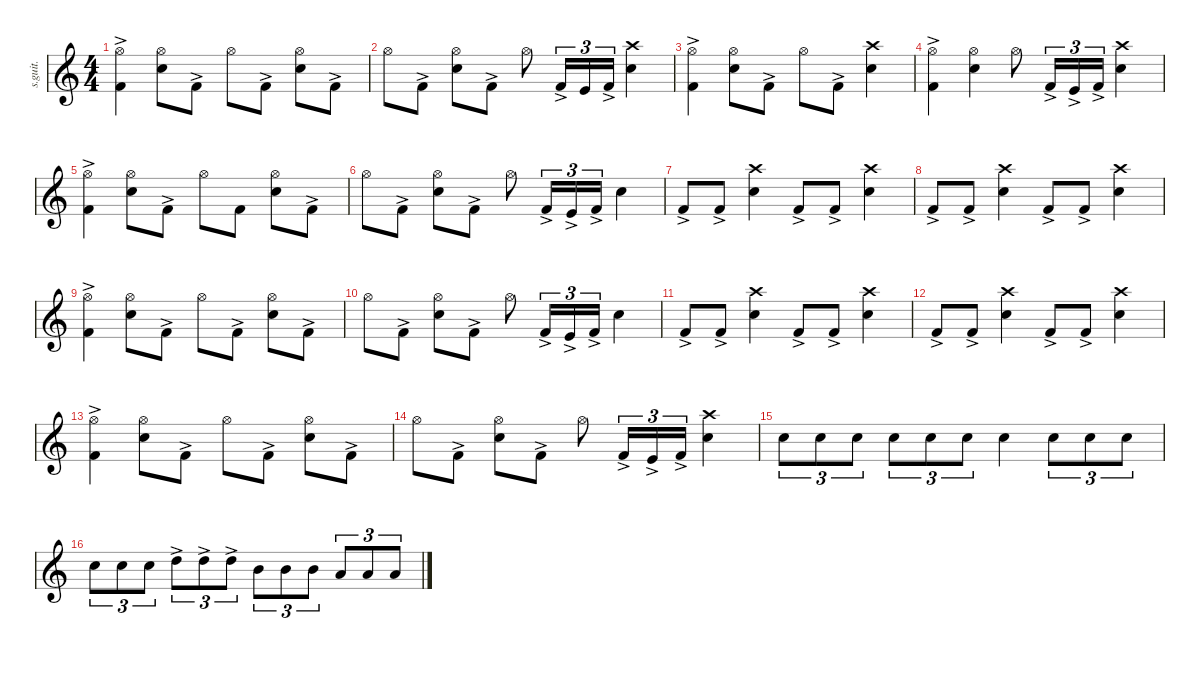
\defaultSystemsLayout 4
\hideDynamics
\bracketExtendMode nobrackets
\track ("Lars Ulrich - Drums" "s.guit.") {instrument percussion}
\staff {score}
\articulation defaults
\ts (4 4)
\tempo (220 hide)
\clef g2
\ks c
("Hi-Hat (open)" "Kick (hit) 2"{ac}).4{lyrics (0 "") lyrics (1 "") lyrics (2 "") lyrics (3 "") lyrics (4 "") dy f} ("Hi-Hat (open)" "Snare (hit) 2").8{lyrics (0 "") lyrics (1 "") lyrics (2 "") lyrics (3 "") lyrics (4 "")} "Kick (hit) 2"{ac}.8{lyrics (0 "") lyrics (1 "") lyrics (2 "") lyrics (3 "") lyrics (4 "") dy mp} "Hi-Hat (open)".8{lyrics (0 "") lyrics (1 "") lyrics (2 "") lyrics (3 "") lyrics (4 "") dy f} "Kick (hit) 2"{ac}.8{lyrics (0 "") lyrics (1 "") lyrics (2 "") lyrics (3 "") lyrics (4 "") dy mp} ("Hi-Hat (open)" "Snare (hit) 2").8{lyrics (0 "") lyrics (1 "") lyrics (2 "") lyrics (3 "") lyrics (4 "") dy f} "Kick (hit) 2"{ac}.8{lyrics (0 "") lyrics (1 "") lyrics (2 "") lyrics (3 "") lyrics (4 "") dy mp} |
"Hi-Hat (open)".8{lyrics (0 "") lyrics (1 "") lyrics (2 "") lyrics (3 "") lyrics (4 "") dy f} "Kick (hit) 2"{ac}.8{lyrics (0 "") lyrics (1 "") lyrics (2 "") lyrics (3 "") lyrics (4 "") dy mp} ("Hi-Hat (open)" "Snare (hit) 2").8{lyrics (0 "") lyrics (1 "") lyrics (2 "") lyrics (3 "") lyrics (4 "") dy f} "Kick (hit) 2"{ac}.8{lyrics (0 "") lyrics (1 "") lyrics (2 "") lyrics (3 "") lyrics (4 "") dy mp} "Hi-Hat (open)".8{lyrics (0 "") lyrics (1 "") lyrics (2 "") lyrics (3 "") lyrics (4 "") dy f} "Kick (hit) 2"{ac}.16{tu (3 2) lyrics (0 "") lyrics (1 "") lyrics (2 "") lyrics (3 "") lyrics (4 "") dy mp} "Kick (hit)".16{tu (3 2) lyrics (0 "") lyrics (1 "") lyrics (2 "") lyrics (3 "") lyrics (4 "") dy mf} "Kick (hit) 2"{ac}.16{tu (3 2) lyrics (0 "") lyrics (1 "") lyrics (2 "") lyrics (3 "") lyrics (4 "") dy mp} ("Snare (hit) 2" "Crash high (hit)").4{lyrics (0 "") lyrics (1 "") lyrics (2 "") lyrics (3 "") lyrics (4 "") dy f} |
("Hi-Hat (open)" "Kick (hit) 2"{ac}).4{lyrics (0 "") lyrics (1 "") lyrics (2 "") lyrics (3 "") lyrics (4 "")} ("Hi-Hat (open)" "Snare (hit) 2").8{lyrics (0 "") lyrics (1 "") lyrics (2 "") lyrics (3 "") lyrics (4 "")} "Kick (hit) 2"{ac}.8{lyrics (0 "") lyrics (1 "") lyrics (2 "") lyrics (3 "") lyrics (4 "") dy mp} "Hi-Hat (open)".8{lyrics (0 "") lyrics (1 "") lyrics (2 "") lyrics (3 "") lyrics (4 "") dy f} "Kick (hit) 2"{ac}.8{lyrics (0 "") lyrics (1 "") lyrics (2 "") lyrics (3 "") lyrics (4 "") dy mp} ("Crash high (hit)" "Snare (hit) 2").4{lyrics (0 "") lyrics (1 "") lyrics (2 "") lyrics (3 "") lyrics (4 "") dy f} |
("Hi-Hat (open)" "Kick (hit) 2"{ac}).4{lyrics (0 "") lyrics (1 "") lyrics (2 "") lyrics (3 "") lyrics (4 "")} ("Hi-Hat (open)" "Snare (hit) 2").4{lyrics (0 "") lyrics (1 "") lyrics (2 "") lyrics (3 "") lyrics (4 "")} "Hi-Hat (open)".8{lyrics (0 "") lyrics (1 "") lyrics (2 "") lyrics (3 "") lyrics (4 "")} "Kick (hit) 2"{ac}.16{tu (3 2) lyrics (0 "") lyrics (1 "") lyrics (2 "") lyrics (3 "") lyrics (4 "") dy mp} "Kick (hit)"{ac}.16{tu (3 2) lyrics (0 "") lyrics (1 "") lyrics (2 "") lyrics (3 "") lyrics (4 "") dy mf} "Kick (hit) 2"{ac}.16{tu (3 2) lyrics (0 "") lyrics (1 "") lyrics (2 "") lyrics (3 "") lyrics (4 "") dy mp} ("Crash high (hit)" "Snare (hit) 2").4{lyrics (0 "") lyrics (1 "") lyrics (2 "") lyrics (3 "") lyrics (4 "") dy f} |
("Hi-Hat (open)" "Kick (hit) 2"{ac}).4{lyrics (0 "") lyrics (1 "") lyrics (2 "") lyrics (3 "") lyrics (4 "")} ("Hi-Hat (open)" "Snare (hit) 2").8{lyrics (0 "") lyrics (1 "") lyrics (2 "") lyrics (3 "") lyrics (4 "")} "Kick (hit) 2"{ac}.8{lyrics (0 "") lyrics (1 "") lyrics (2 "") lyrics (3 "") lyrics (4 "") dy mp} "Hi-Hat (open)".8{lyrics (0 "") lyrics (1 "") lyrics (2 "") lyrics (3 "") lyrics (4 "") dy f} "Kick (hit) 2".8{lyrics (0 "") lyrics (1 "") lyrics (2 "") lyrics (3 "") lyrics (4 "")} ("Hi-Hat (open)" "Snare (hit) 2").8{lyrics (0 "") lyrics (1 "") lyrics (2 "") lyrics (3 "") lyrics (4 "")} "Kick (hit) 2"{ac}.8{lyrics (0 "") lyrics (1 "") lyrics (2 "") lyrics (3 "") lyrics (4 "") dy mp} |
"Hi-Hat (open)".8{lyrics (0 "") lyrics (1 "") lyrics (2 "") lyrics (3 "") lyrics (4 "") dy f} "Kick (hit) 2"{ac}.8{lyrics (0 "") lyrics (1 "") lyrics (2 "") lyrics (3 "") lyrics (4 "") dy mp} ("Hi-Hat (open)" "Snare (hit) 2").8{lyrics (0 "") lyrics (1 "") lyrics (2 "") lyrics (3 "") lyrics (4 "") dy f} "Kick (hit) 2"{ac}.8{lyrics (0 "") lyrics (1 "") lyrics (2 "") lyrics (3 "") lyrics (4 "") dy mp} "Hi-Hat (open)".8{lyrics (0 "") lyrics (1 "") lyrics (2 "") lyrics (3 "") lyrics (4 "") dy f} "Kick (hit) 2"{ac}.16{tu (3 2) lyrics (0 "") lyrics (1 "") lyrics (2 "") lyrics (3 "") lyrics (4 "") dy mp} "Kick (hit)"{ac}.16{tu (3 2) lyrics (0 "") lyrics (1 "") lyrics (2 "") lyrics (3 "") lyrics (4 "") dy mf} "Kick (hit) 2"{ac}.16{tu (3 2) lyrics (0 "") lyrics (1 "") lyrics (2 "") lyrics (3 "") lyrics (4 "") dy mp} "Snare (hit) 2".4{lyrics (0 "") lyrics (1 "") lyrics (2 "") lyrics (3 "") lyrics (4 "") dy f} |
"Kick (hit) 2"{ac}.8{lyrics (0 "") lyrics (1 "") lyrics (2 "") lyrics (3 "") lyrics (4 "") dy mp} "Kick (hit) 2"{ac}.8{lyrics (0 "") lyrics (1 "") lyrics (2 "") lyrics (3 "") lyrics (4 "")} ("Crash high (hit)" "Snare (hit) 2").4{lyrics (0 "") lyrics (1 "") lyrics (2 "") lyrics (3 "") lyrics (4 "") dy f} "Kick (hit) 2"{ac}.8{lyrics (0 "") lyrics (1 "") lyrics (2 "") lyrics (3 "") lyrics (4 "") dy mp} "Kick (hit) 2"{ac}.8{lyrics (0 "") lyrics (1 "") lyrics (2 "") lyrics (3 "") lyrics (4 "")} ("Snare (hit) 2" "Crash high (hit)").4{lyrics (0 "") lyrics (1 "") lyrics (2 "") lyrics (3 "") lyrics (4 "") dy f} |
"Kick (hit) 2"{ac}.8{lyrics (0 "") lyrics (1 "") lyrics (2 "") lyrics (3 "") lyrics (4 "") dy mp} "Kick (hit) 2"{ac}.8{lyrics (0 "") lyrics (1 "") lyrics (2 "") lyrics (3 "") lyrics (4 "")} ("Crash high (hit)" "Snare (hit) 2").4{lyrics (0 "") lyrics (1 "") lyrics (2 "") lyrics (3 "") lyrics (4 "") dy f} "Kick (hit) 2"{ac}.8{lyrics (0 "") lyrics (1 "") lyrics (2 "") lyrics (3 "") lyrics (4 "") dy mp} "Kick (hit) 2"{ac}.8{lyrics (0 "") lyrics (1 "") lyrics (2 "") lyrics (3 "") lyrics (4 "")} ("Snare (hit) 2" "Crash high (hit)").4{lyrics (0 "") lyrics (1 "") lyrics (2 "") lyrics (3 "") lyrics (4 "") dy f} |
("Hi-Hat (open)" "Kick (hit) 2"{ac}).4{lyrics (0 "") lyrics (1 "") lyrics (2 "") lyrics (3 "") lyrics (4 "")} ("Hi-Hat (open)" "Snare (hit) 2").8{lyrics (0 "") lyrics (1 "") lyrics (2 "") lyrics (3 "") lyrics (4 "")} "Kick (hit) 2"{ac}.8{lyrics (0 "") lyrics (1 "") lyrics (2 "") lyrics (3 "") lyrics (4 "") dy mp} "Hi-Hat (open)".8{lyrics (0 "") lyrics (1 "") lyrics (2 "") lyrics (3 "") lyrics (4 "") dy f} "Kick (hit) 2"{ac}.8{lyrics (0 "") lyrics (1 "") lyrics (2 "") lyrics (3 "") lyrics (4 "") dy mp} ("Hi-Hat (open)" "Snare (hit) 2").8{lyrics (0 "") lyrics (1 "") lyrics (2 "") lyrics (3 "") lyrics (4 "") dy f} "Kick (hit) 2"{ac}.8{lyrics (0 "") lyrics (1 "") lyrics (2 "") lyrics (3 "") lyrics (4 "") dy mp} |
"Hi-Hat (open)".8{lyrics (0 "") lyrics (1 "") lyrics (2 "") lyrics (3 "") lyrics (4 "") dy f} "Kick (hit) 2"{ac}.8{lyrics (0 "") lyrics (1 "") lyrics (2 "") lyrics (3 "") lyrics (4 "") dy mp} ("Hi-Hat (open)" "Snare (hit) 2").8{lyrics (0 "") lyrics (1 "") lyrics (2 "") lyrics (3 "") lyrics (4 "") dy f} "Kick (hit) 2"{ac}.8{lyrics (0 "") lyrics (1 "") lyrics (2 "") lyrics (3 "") lyrics (4 "") dy mp} "Hi-Hat (open)".8{lyrics (0 "") lyrics (1 "") lyrics (2 "") lyrics (3 "") lyrics (4 "") dy f} "Kick (hit) 2"{ac}.16{tu (3 2) lyrics (0 "") lyrics (1 "") lyrics (2 "") lyrics (3 "") lyrics (4 "") dy mp} "Kick (hit)"{ac}.16{tu (3 2) lyrics (0 "") lyrics (1 "") lyrics (2 "") lyrics (3 "") lyrics (4 "") dy mf} "Kick (hit) 2"{ac}.16{tu (3 2) lyrics (0 "") lyrics (1 "") lyrics (2 "") lyrics (3 "") lyrics (4 "") dy mp} "Snare (hit) 2".4{lyrics (0 "") lyrics (1 "") lyrics (2 "") lyrics (3 "") lyrics (4 "") dy f} |
"Kick (hit) 2"{ac}.8{lyrics (0 "") lyrics (1 "") lyrics (2 "") lyrics (3 "") lyrics (4 "") dy mp} "Kick (hit) 2"{ac}.8{lyrics (0 "") lyrics (1 "") lyrics (2 "") lyrics (3 "") lyrics (4 "")} ("Snare (hit) 2" "Crash high (hit)").4{lyrics (0 "") lyrics (1 "") lyrics (2 "") lyrics (3 "") lyrics (4 "") dy f} "Kick (hit) 2"{ac}.8{lyrics (0 "") lyrics (1 "") lyrics (2 "") lyrics (3 "") lyrics (4 "") dy mp} "Kick (hit) 2"{ac}.8{lyrics (0 "") lyrics (1 "") lyrics (2 "") lyrics (3 "") lyrics (4 "")} ("Snare (hit) 2" "Crash high (hit)").4{lyrics (0 "") lyrics (1 "") lyrics (2 "") lyrics (3 "") lyrics (4 "") dy f} |
"Kick (hit) 2"{ac}.8{lyrics (0 "") lyrics (1 "") lyrics (2 "") lyrics (3 "") lyrics (4 "") dy mp} "Kick (hit) 2"{ac}.8{lyrics (0 "") lyrics (1 "") lyrics (2 "") lyrics (3 "") lyrics (4 "")} ("Crash high (hit)" "Snare (hit) 2").4{lyrics (0 "") lyrics (1 "") lyrics (2 "") lyrics (3 "") lyrics (4 "") dy f} "Kick (hit) 2"{ac}.8{lyrics (0 "") lyrics (1 "") lyrics (2 "") lyrics (3 "") lyrics (4 "") dy mp} "Kick (hit) 2"{ac}.8{lyrics (0 "") lyrics (1 "") lyrics (2 "") lyrics (3 "") lyrics (4 "")} ("Snare (hit) 2" "Crash high (hit)").4{lyrics (0 "") lyrics (1 "") lyrics (2 "") lyrics (3 "") lyrics (4 "") dy f} |
("Hi-Hat (open)" "Kick (hit) 2"{ac}).4{lyrics (0 "") lyrics (1 "") lyrics (2 "") lyrics (3 "") lyrics (4 "")} ("Hi-Hat (open)" "Snare (hit) 2").8{lyrics (0 "") lyrics (1 "") lyrics (2 "") lyrics (3 "") lyrics (4 "")} "Kick (hit) 2"{ac}.8{lyrics (0 "") lyrics (1 "") lyrics (2 "") lyrics (3 "") lyrics (4 "") dy mp} "Hi-Hat (open)".8{lyrics (0 "") lyrics (1 "") lyrics (2 "") lyrics (3 "") lyrics (4 "") dy f} "Kick (hit) 2"{ac}.8{lyrics (0 "") lyrics (1 "") lyrics (2 "") lyrics (3 "") lyrics (4 "") dy mp} ("Hi-Hat (open)" "Snare (hit) 2").8{lyrics (0 "") lyrics (1 "") lyrics (2 "") lyrics (3 "") lyrics (4 "") dy f} "Kick (hit) 2"{ac}.8{lyrics (0 "") lyrics (1 "") lyrics (2 "") lyrics (3 "") lyrics (4 "") dy mp} |
"Hi-Hat (open)".8{lyrics (0 "") lyrics (1 "") lyrics (2 "") lyrics (3 "") lyrics (4 "") dy f} "Kick (hit) 2"{ac}.8{lyrics (0 "") lyrics (1 "") lyrics (2 "") lyrics (3 "") lyrics (4 "") dy mp} ("Hi-Hat (open)" "Snare (hit) 2").8{lyrics (0 "") lyrics (1 "") lyrics (2 "") lyrics (3 "") lyrics (4 "") dy f} "Kick (hit) 2"{ac}.8{lyrics (0 "") lyrics (1 "") lyrics (2 "") lyrics (3 "") lyrics (4 "") dy mp} "Hi-Hat (open)".8{lyrics (0 "") lyrics (1 "") lyrics (2 "") lyrics (3 "") lyrics (4 "") dy f} "Kick (hit) 2"{ac}.16{tu (3 2) lyrics (0 "") lyrics (1 "") lyrics (2 "") lyrics (3 "") lyrics (4 "") dy mp} "Kick (hit)"{ac}.16{tu (3 2) lyrics (0 "") lyrics (1 "") lyrics (2 "") lyrics (3 "") lyrics (4 "") dy mf} "Kick (hit) 2"{ac}.16{tu (3 2) lyrics (0 "") lyrics (1 "") lyrics (2 "") lyrics (3 "") lyrics (4 "") dy mp} ("Crash high (hit)" "Snare (hit) 2").4{lyrics (0 "") lyrics (1 "") lyrics (2 "") lyrics (3 "") lyrics (4 "") dy f} |
"Snare (hit) 2".8{tu (3 2) lyrics (0 "") lyrics (1 "") lyrics (2 "") lyrics (3 "") lyrics (4 "")} "Snare (hit) 2".8{tu (3 2) lyrics (0 "") lyrics (1 "") lyrics (2 "") lyrics (3 "") lyrics (4 "")} "Snare (hit) 2".8{tu (3 2) lyrics (0 "") lyrics (1 "") lyrics (2 "") lyrics (3 "") lyrics (4 "")} "Snare (hit) 2".8{tu (3 2) lyrics (0 "") lyrics (1 "") lyrics (2 "") lyrics (3 "") lyrics (4 "")} "Snare (hit) 2".8{tu (3 2) lyrics (0 "") lyrics (1 "") lyrics (2 "") lyrics (3 "") lyrics (4 "")} "Snare (hit) 2".8{tu (3 2) lyrics (0 "") lyrics (1 "") lyrics (2 "") lyrics (3 "") lyrics (4 "")} "Snare (hit) 2".4{lyrics (0 "") lyrics (1 "") lyrics (2 "") lyrics (3 "") lyrics (4 "")} "Snare (hit) 2".8{tu (3 2) lyrics (0 "") lyrics (1 "") lyrics (2 "") lyrics (3 "") lyrics (4 "")} "Snare (hit) 2".8{tu (3 2) lyrics (0 "") lyrics (1 "") lyrics (2 "") lyrics (3 "") lyrics (4 "")} "Snare (hit) 2".8{tu (3 2) lyrics (0 "") lyrics (1 "") lyrics (2 "") lyrics (3 "") lyrics (4 "")} |
"Snare (hit) 2".8{tu (3 2) lyrics (0 "") lyrics (1 "") lyrics (2 "") lyrics (3 "") lyrics (4 "")} "Snare (hit) 2".8{tu (3 2) lyrics (0 "") lyrics (1 "") lyrics (2 "") lyrics (3 "") lyrics (4 "")} "Snare (hit) 2".8{tu (3 2) lyrics (0 "") lyrics (1 "") lyrics (2 "") lyrics (3 "") lyrics (4 "")} "High Tom (hit)"{ac}.8{tu (3 2) lyrics (0 "") lyrics (1 "") lyrics (2 "") lyrics (3 "") lyrics (4 "") dy mp} "High Tom (hit)"{ac}.8{tu (3 2) lyrics (0 "") lyrics (1 "") lyrics (2 "") lyrics (3 "") lyrics (4 "")} "High Tom (hit)"{ac}.8{tu (3 2) lyrics (0 "") lyrics (1 "") lyrics (2 "") lyrics (3 "") lyrics (4 "")} "Mid Tom (hit)".8{tu (3 2) lyrics (0 "") lyrics (1 "") lyrics (2 "") lyrics (3 "") lyrics (4 "") dy mf} "Mid Tom (hit)".8{tu (3 2) lyrics (0 "") lyrics (1 "") lyrics (2 "") lyrics (3 "") lyrics (4 "")} "Mid Tom (hit)".8{tu (3 2) lyrics (0 "") lyrics (1 "") lyrics (2 "") lyrics (3 "") lyrics (4 "")} "Low Tom (hit)".8{tu (3 2) lyrics (0 "") lyrics (1 "") lyrics (2 "") lyrics (3 "") lyrics (4 "")} "Low Tom (hit)".8{tu (3 2) lyrics (0 "") lyrics (1 "") lyrics (2 "") lyrics (3 "") lyrics (4 "")} "Low Tom (hit)".8{tu (3 2) lyrics (0 "") lyrics (1 "") lyrics (2 "") lyrics (3 "") lyrics (4 "")}
